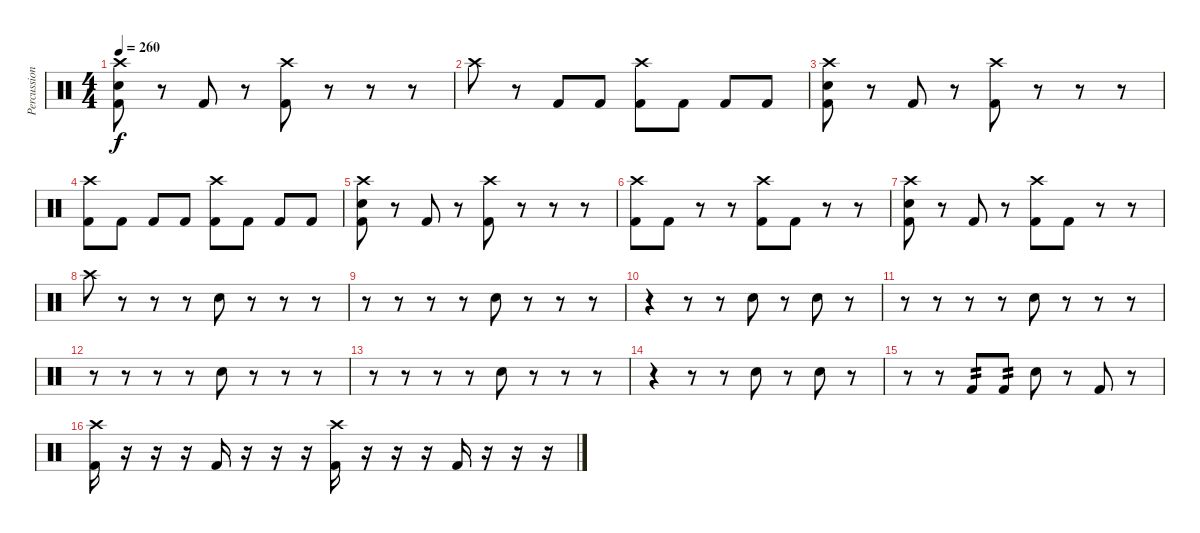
\track ("Percussion" "Percussion") {instrument percussion}
\staff {score}
\articulation defaults
\ts (4 4)
\tempo 260
\clef neutral
\ks c
("Kick (hit) 2" "Snare (hit) 2" "Crash high (hit)").8{dy f} r.8 "Kick (hit) 2".8 r.8 ("Kick (hit) 2" "Crash high (hit)").8 r.8 r.8 r.8 |
"Crash high (hit)".8 r.8 "Kick (hit) 2".8 "Kick (hit) 2".8 ("Kick (hit) 2" "Crash high (hit)").8 "Kick (hit) 2".8 "Kick (hit) 2".8 "Kick (hit) 2".8 |
("Kick (hit) 2" "Snare (hit) 2" "Crash high (hit)").8 r.8 "Kick (hit) 2".8 r.8 ("Kick (hit) 2" "Crash high (hit)").8 r.8 r.8 r.8 |
("Kick (hit) 2" "Crash high (hit)").8 "Kick (hit) 2".8 "Kick (hit) 2".8 "Kick (hit) 2".8 ("Kick (hit) 2" "Crash high (hit)").8 "Kick (hit) 2".8 "Kick (hit) 2".8 "Kick (hit) 2".8 |
("Kick (hit) 2" "Snare (hit) 2" "Crash high (hit)").8 r.8 "Kick (hit) 2".8 r.8 ("Kick (hit) 2" "Crash high (hit)").8 r.8 r.8 r.8 |
("Kick (hit) 2" "Crash high (hit)").8 "Kick (hit) 2".8 r.8 r.8 ("Kick (hit) 2" "Crash high (hit)").8 "Kick (hit) 2".8 r.8 r.8 |
("Kick (hit) 2" "Snare (hit) 2" "Crash high (hit)").8 r.8 "Kick (hit) 2".8 r.8 ("Kick (hit) 2" "Crash high (hit)").8 "Kick (hit) 2".8 r.8 r.8 |
"Crash high (hit)".8 r.8 r.8 r.8 "Hand Clap (hit)".8 r.8 r.8 r.8 |
r.8 r.8 r.8 r.8 "Hand Clap (hit)".8 r.8 r.8 r.8 |
r.4 r.8 r.8 "Hand Clap (hit)".8 r.8 "Hand Clap (hit)".8 r.8 |
r.8 r.8 r.8 r.8 "Hand Clap (hit)".8 r.8 r.8 r.8 |
r.8 r.8 r.8 r.8 "Hand Clap (hit)".8 r.8 r.8 r.8 |
r.8 r.8 r.8 r.8 "Hand Clap (hit)".8 r.8 r.8 r.8 |
r.4 r.8 r.8 "Hand Clap (hit)".8 r.8 "Hand Clap (hit)".8 r.8 |
r.8 r.8 "Kick (hit) 2".8{tp 2} "Kick (hit) 2".8{tp 2} "Hand Clap (hit)".8 r.8 "Kick (hit) 2".8 r.8 |
("Kick (hit) 2" "Crash high (hit)").16 r.16 r.16 r.16 "Kick (hit) 2".16 r.16 r.16 r.16 ("Kick (hit) 2" "Crash high (hit)").16 r.16 r.16 r.16 "Kick (hit) 2".16 r.16 r.16 r.16
